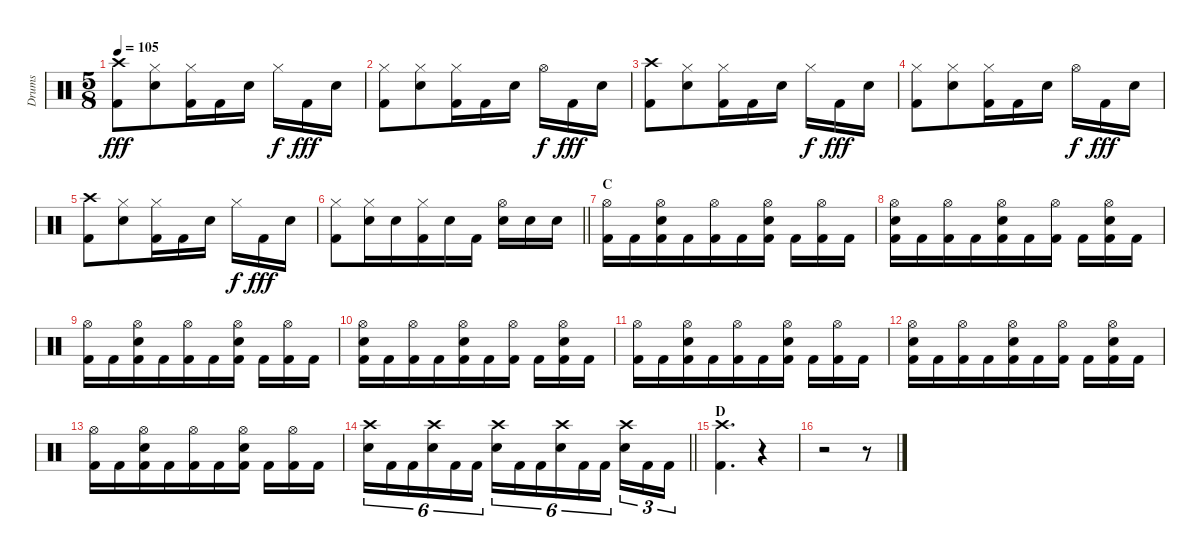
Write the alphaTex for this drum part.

\track ("Drums" "Drums") {instrument percussion}
\staff {score}
\articulation defaults
\ts (5 8)
\tempo 105
\clef neutral
\ks aminor
("Crash high (hit)" "Kick (hit) 2").8{dy fff beam merge} ("Hi-Hat (closed)" "Snare (hit) 2").8 ("Hi-Hat (closed)" "Kick (hit) 2").16 "Kick (hit) 2".16{beam merge} "Snare (hit) 2".16{beam split} "Hi-Hat (closed)".16{dy f beam merge} "Kick (hit) 2".16{dy fff} "Snare (hit) 2".16 |
("Hi-Hat (closed)" "Kick (hit) 2").8{beam merge} ("Hi-Hat (closed)" "Snare (hit) 2").8 ("Hi-Hat (closed)" "Kick (hit) 2").16 "Kick (hit) 2".16{beam merge} "Snare (hit) 2".16{beam split} "Hi-Hat (open)".16{dy f beam merge} "Kick (hit) 2".16{dy fff} "Snare (hit) 2".16 |
("Crash high (hit)" "Kick (hit) 2").8{beam merge} ("Hi-Hat (closed)" "Snare (hit) 2").8 ("Hi-Hat (closed)" "Kick (hit) 2").16 "Kick (hit) 2".16{beam merge} "Snare (hit) 2".16{beam split} "Hi-Hat (closed)".16{dy f beam merge} "Kick (hit) 2".16{dy fff} "Snare (hit) 2".16 |
("Hi-Hat (closed)" "Kick (hit) 2").8{beam merge} ("Hi-Hat (closed)" "Snare (hit) 2").8 ("Hi-Hat (closed)" "Kick (hit) 2").16 "Kick (hit) 2".16{beam merge} "Snare (hit) 2".16{beam split} "Hi-Hat (open)".16{dy f beam merge} "Kick (hit) 2".16{dy fff} "Snare (hit) 2".16 |
("Crash high (hit)" "Kick (hit) 2").8{beam merge} ("Hi-Hat (closed)" "Snare (hit) 2").8 ("Hi-Hat (closed)" "Kick (hit) 2").16 "Kick (hit) 2".16{beam merge} "Snare (hit) 2".16{beam split} "Hi-Hat (closed)".16{dy f beam merge} "Kick (hit) 2".16{dy fff} "Snare (hit) 2".16 |
\barLineRight lightlight
("Hi-Hat (closed)" "Kick (hit) 2").8{beam merge} ("Hi-Hat (closed)" "Snare (hit) 2").16 "Snare (hit) 2".16 ("Hi-Hat (closed)" "Kick (hit) 2").16 "Snare (hit) 2".16{beam merge} "Kick (hit) 2".16{beam split} ("Hi-Hat (open)" "Snare (hit) 2").16{beam merge} "Snare (hit) 2".16 "Snare (hit) 2".16 |
\section ("" "C")
("Hi-Hat (open)" "Kick (hit) 2").16 "Kick (hit) 2".16{beam merge} ("Hi-Hat (open)" "Snare (hit) 2" "Kick (hit) 2").16 "Kick (hit) 2".16 ("Hi-Hat (open)" "Kick (hit) 2").16 "Kick (hit) 2".16{beam merge} ("Hi-Hat (open)" "Snare (hit) 2" "Kick (hit) 2").16{beam split} "Kick (hit) 2".16{beam merge} ("Hi-Hat (open)" "Kick (hit) 2").16 "Kick (hit) 2".16 |
("Hi-Hat (open)" "Snare (hit) 2" "Kick (hit) 2").16 "Kick (hit) 2".16{beam merge} ("Hi-Hat (open)" "Kick (hit) 2").16 "Kick (hit) 2".16 ("Hi-Hat (open)" "Snare (hit) 2" "Kick (hit) 2").16 "Kick (hit) 2".16{beam merge} ("Hi-Hat (open)" "Kick (hit) 2").16{beam split} "Kick (hit) 2".16{beam merge} ("Hi-Hat (open)" "Snare (hit) 2" "Kick (hit) 2").16 "Kick (hit) 2".16 |
("Hi-Hat (open)" "Kick (hit) 2").16 "Kick (hit) 2".16{beam merge} ("Hi-Hat (open)" "Snare (hit) 2" "Kick (hit) 2").16 "Kick (hit) 2".16 ("Hi-Hat (open)" "Kick (hit) 2").16 "Kick (hit) 2".16{beam merge} ("Hi-Hat (open)" "Snare (hit) 2" "Kick (hit) 2").16{beam split} "Kick (hit) 2".16{beam merge} ("Hi-Hat (open)" "Kick (hit) 2").16 "Kick (hit) 2".16 |
("Hi-Hat (open)" "Snare (hit) 2" "Kick (hit) 2").16 "Kick (hit) 2".16{beam merge} ("Hi-Hat (open)" "Kick (hit) 2").16 "Kick (hit) 2".16 ("Hi-Hat (open)" "Snare (hit) 2" "Kick (hit) 2").16 "Kick (hit) 2".16{beam merge} ("Hi-Hat (open)" "Kick (hit) 2").16{beam split} "Kick (hit) 2".16{beam merge} ("Hi-Hat (open)" "Snare (hit) 2" "Kick (hit) 2").16 "Kick (hit) 2".16 |
("Hi-Hat (open)" "Kick (hit) 2").16 "Kick (hit) 2".16{beam merge} ("Hi-Hat (open)" "Snare (hit) 2" "Kick (hit) 2").16 "Kick (hit) 2".16 ("Hi-Hat (open)" "Kick (hit) 2").16 "Kick (hit) 2".16{beam merge} ("Hi-Hat (open)" "Snare (hit) 2" "Kick (hit) 2").16{beam split} "Kick (hit) 2".16{beam merge} ("Hi-Hat (open)" "Kick (hit) 2").16 "Kick (hit) 2".16 |
("Hi-Hat (open)" "Snare (hit) 2" "Kick (hit) 2").16 "Kick (hit) 2".16{beam merge} ("Hi-Hat (open)" "Kick (hit) 2").16 "Kick (hit) 2".16 ("Hi-Hat (open)" "Snare (hit) 2" "Kick (hit) 2").16 "Kick (hit) 2".16{beam merge} ("Hi-Hat (open)" "Kick (hit) 2").16{beam split} "Kick (hit) 2".16{beam merge} ("Hi-Hat (open)" "Snare (hit) 2" "Kick (hit) 2").16 "Kick (hit) 2".16 |
("Hi-Hat (open)" "Kick (hit) 2").16 "Kick (hit) 2".16{beam merge} ("Hi-Hat (open)" "Snare (hit) 2" "Kick (hit) 2").16 "Kick (hit) 2".16 ("Hi-Hat (open)" "Kick (hit) 2").16 "Kick (hit) 2".16{beam merge} ("Hi-Hat (open)" "Snare (hit) 2" "Kick (hit) 2").16{beam split} "Kick (hit) 2".16{beam merge} ("Hi-Hat (open)" "Kick (hit) 2").16 "Kick (hit) 2".16 |
\barLineRight lightlight
("Crash high (hit)" "Snare (hit) 2").16{tu (6 4)} "Kick (hit) 2".16{tu (6 4)} "Kick (hit) 2".16{tu (6 4) beam merge} ("Crash high (hit)" "Snare (hit) 2").16{tu (6 4)} "Kick (hit) 2".16{tu (6 4)} "Kick (hit) 2".16{tu (6 4)} ("Crash high (hit)" "Snare (hit) 2").16{tu (6 4)} "Kick (hit) 2".16{tu (6 4)} "Kick (hit) 2".16{tu (6 4) beam merge} ("Crash high (hit)" "Snare (hit) 2").16{tu (6 4)} "Kick (hit) 2".16{tu (6 4)} "Kick (hit) 2".16{tu (6 4)} ("Crash high (hit)" "Snare (hit) 2").16{tu (3 2)} "Kick (hit) 2".16{tu (3 2)} "Kick (hit) 2".16{tu (3 2)} |
\section ("" "D")
("Crash high (hit)" "Kick (hit) 2").4{d} r.4 |
r.2 r.8
